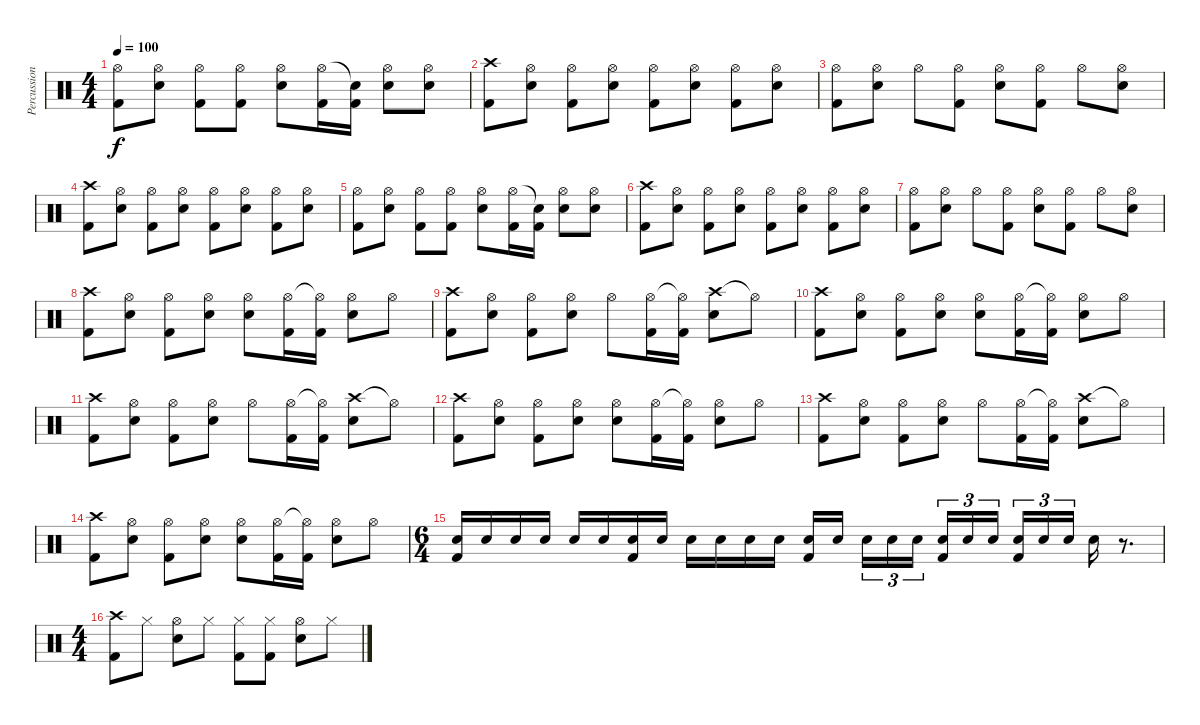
\track ("Percussions" "Percussion") {instrument percussion}
\staff {score}
\articulation defaults
\ts (4 4)
\tempo 100
\clef neutral
\ks c
("Hi-Hat (open)" "Kick (hit) 2").8{dy f} ("Hi-Hat (open)" "Snare (hit) 2").8 ("Hi-Hat (open)" "Kick (hit) 2").8 ("Hi-Hat (open)" "Kick (hit) 2").8 ("Hi-Hat (open)" "Snare (hit) 2").8 ("Hi-Hat (open)" "Kick (hit) 2").16 ("Snare (hit)"{t} "Kick (hit) 2").16 ("Hi-Hat (open)" "Snare (hit) 2").8 ("Hi-Hat (open)" "Snare (hit) 2").8 |
("Crash high (hit)" "Kick (hit) 2").8 ("Hi-Hat (open)" "Snare (hit) 2").8 ("Hi-Hat (open)" "Kick (hit) 2").8 ("Hi-Hat (open)" "Snare (hit) 2").8 ("Hi-Hat (open)" "Kick (hit) 2").8 ("Hi-Hat (open)" "Snare (hit) 2").8 ("Hi-Hat (open)" "Kick (hit) 2").8 ("Hi-Hat (open)" "Snare (hit) 2").8 |
("Hi-Hat (open)" "Kick (hit) 2").8 ("Hi-Hat (open)" "Snare (hit) 2").8 "Hi-Hat (open)".8 ("Hi-Hat (open)" "Kick (hit) 2").8 ("Hi-Hat (open)" "Snare (hit) 2").8 ("Hi-Hat (open)" "Kick (hit) 2").8 "Hi-Hat (open)".8 ("Hi-Hat (open)" "Snare (hit) 2").8 |
("Crash high (hit)" "Kick (hit) 2").8 ("Hi-Hat (open)" "Snare (hit) 2").8 ("Hi-Hat (open)" "Kick (hit) 2").8 ("Hi-Hat (open)" "Snare (hit) 2").8 ("Hi-Hat (open)" "Kick (hit) 2").8 ("Hi-Hat (open)" "Snare (hit) 2").8 ("Hi-Hat (open)" "Kick (hit) 2").8 ("Hi-Hat (open)" "Snare (hit) 2").8 |
("Hi-Hat (open)" "Kick (hit) 2").8 ("Hi-Hat (open)" "Snare (hit) 2").8 ("Hi-Hat (open)" "Kick (hit) 2").8 ("Hi-Hat (open)" "Kick (hit) 2").8 ("Hi-Hat (open)" "Snare (hit) 2").8 ("Hi-Hat (open)" "Kick (hit) 2").16 ("Snare (hit)"{t} "Kick (hit) 2").16 ("Hi-Hat (open)" "Snare (hit) 2").8 ("Hi-Hat (open)" "Snare (hit) 2").8 |
("Crash high (hit)" "Kick (hit) 2").8 ("Hi-Hat (open)" "Snare (hit) 2").8 ("Hi-Hat (open)" "Kick (hit) 2").8 ("Hi-Hat (open)" "Snare (hit) 2").8 ("Hi-Hat (open)" "Kick (hit) 2").8 ("Hi-Hat (open)" "Snare (hit) 2").8 ("Hi-Hat (open)" "Kick (hit) 2").8 ("Hi-Hat (open)" "Snare (hit) 2").8 |
("Hi-Hat (open)" "Kick (hit) 2").8 ("Hi-Hat (open)" "Snare (hit) 2").8 "Hi-Hat (open)".8 ("Hi-Hat (open)" "Kick (hit) 2").8 ("Hi-Hat (open)" "Snare (hit) 2").8 ("Hi-Hat (open)" "Kick (hit) 2").8 "Hi-Hat (open)".8 ("Hi-Hat (open)" "Snare (hit) 2").8 |
("Crash high (hit)" "Kick (hit) 2").8 ("Hi-Hat (open)" "Snare (hit) 2").8 ("Hi-Hat (open)" "Kick (hit) 2").8 ("Hi-Hat (open)" "Snare (hit) 2").8 ("Hi-Hat (open)" "Snare (hit) 2").8 ("Hi-Hat (open)" "Kick (hit) 2").16 ("Hi-Hat (open)"{t} "Kick (hit) 2").16 ("Hi-Hat (open)" "Snare (hit) 2").8 "Hi-Hat (open)".8 |
("Crash high (hit)" "Kick (hit) 2").8 ("Hi-Hat (open)" "Snare (hit) 2").8 ("Hi-Hat (open)" "Kick (hit) 2").8 ("Hi-Hat (open)" "Snare (hit) 2").8 "Hi-Hat (open)".8 ("Hi-Hat (open)" "Kick (hit) 2").16 ("Hi-Hat (open)"{t} "Kick (hit) 2").16 ("Crash high (hit)" "Snare (hit) 2").8 "Hi-Hat (open)"{t}.8 |
("Crash high (hit)" "Kick (hit) 2").8 ("Hi-Hat (open)" "Snare (hit) 2").8 ("Hi-Hat (open)" "Kick (hit) 2").8 ("Hi-Hat (open)" "Snare (hit) 2").8 ("Hi-Hat (open)" "Snare (hit) 2").8 ("Hi-Hat (open)" "Kick (hit) 2").16 ("Hi-Hat (open)"{t} "Kick (hit) 2").16 ("Hi-Hat (open)" "Snare (hit) 2").8 "Hi-Hat (open)".8 |
("Crash high (hit)" "Kick (hit) 2").8 ("Hi-Hat (open)" "Snare (hit) 2").8 ("Hi-Hat (open)" "Kick (hit) 2").8 ("Hi-Hat (open)" "Snare (hit) 2").8 "Hi-Hat (open)".8 ("Hi-Hat (open)" "Kick (hit) 2").16 ("Hi-Hat (open)"{t} "Kick (hit) 2").16 ("Crash high (hit)" "Snare (hit) 2").8 "Hi-Hat (open)"{t}.8 |
("Crash high (hit)" "Kick (hit) 2").8 ("Hi-Hat (open)" "Snare (hit) 2").8 ("Hi-Hat (open)" "Kick (hit) 2").8 ("Hi-Hat (open)" "Snare (hit) 2").8 ("Hi-Hat (open)" "Snare (hit) 2").8 ("Hi-Hat (open)" "Kick (hit) 2").16 ("Hi-Hat (open)"{t} "Kick (hit) 2").16 ("Hi-Hat (open)" "Snare (hit) 2").8 "Hi-Hat (open)".8 |
("Crash high (hit)" "Kick (hit) 2").8 ("Hi-Hat (open)" "Snare (hit) 2").8 ("Hi-Hat (open)" "Kick (hit) 2").8 ("Hi-Hat (open)" "Snare (hit) 2").8 "Hi-Hat (open)".8 ("Hi-Hat (open)" "Kick (hit) 2").16 ("Hi-Hat (open)"{t} "Kick (hit) 2").16 ("Crash high (hit)" "Snare (hit) 2").8 "Hi-Hat (open)"{t}.8 |
("Crash high (hit)" "Kick (hit) 2").8 ("Hi-Hat (open)" "Snare (hit) 2").8 ("Hi-Hat (open)" "Kick (hit) 2").8 ("Hi-Hat (open)" "Snare (hit) 2").8 ("Hi-Hat (open)" "Snare (hit) 2").8 ("Hi-Hat (open)" "Kick (hit) 2").16 ("Hi-Hat (open)"{t} "Kick (hit) 2").16 ("Hi-Hat (open)" "Snare (hit) 2").8 "Hi-Hat (open)".8 |
\ts (6 4)
("Snare (hit) 2" "Kick (hit) 2").16 "Snare (hit) 2".16 "Snare (hit) 2".16 "Snare (hit) 2".16 "Snare (hit) 2".16 "Snare (hit) 2".16 ("Snare (hit) 2" "Kick (hit) 2").16 "Snare (hit) 2".16 "Snare (hit) 2".16 "Snare (hit) 2".16 "Snare (hit) 2".16 "Snare (hit) 2".16 ("Snare (hit) 2" "Kick (hit) 2").16 "Snare (hit) 2".16 "Snare (hit) 2".16{tu (3 2)} "Snare (hit) 2".16{tu (3 2)} "Snare (hit) 2".16{tu (3 2)} ("Snare (hit) 2" "Kick (hit) 2").16{tu (3 2)} "Snare (hit) 2".16{tu (3 2)} "Snare (hit) 2".16{tu (3 2)} ("Snare (hit) 2" "Kick (hit) 2").16{tu (3 2)} "Snare (hit) 2".16{tu (3 2)} "Snare (hit) 2".16{tu (3 2)} "Snare (hit) 2".16 r.8{d} |
\ts (4 4)
("Crash high (hit)" "Kick (hit) 2").8 "Hi-Hat (closed)".8 ("Hi-Hat (open)" "Snare (hit) 2").8 "Hi-Hat (closed)".8 ("Hi-Hat (closed)" "Kick (hit) 2").8 ("Hi-Hat (closed)" "Kick (hit) 2").8 ("Hi-Hat (open)" "Snare (hit) 2").8 "Hi-Hat (closed)".8
